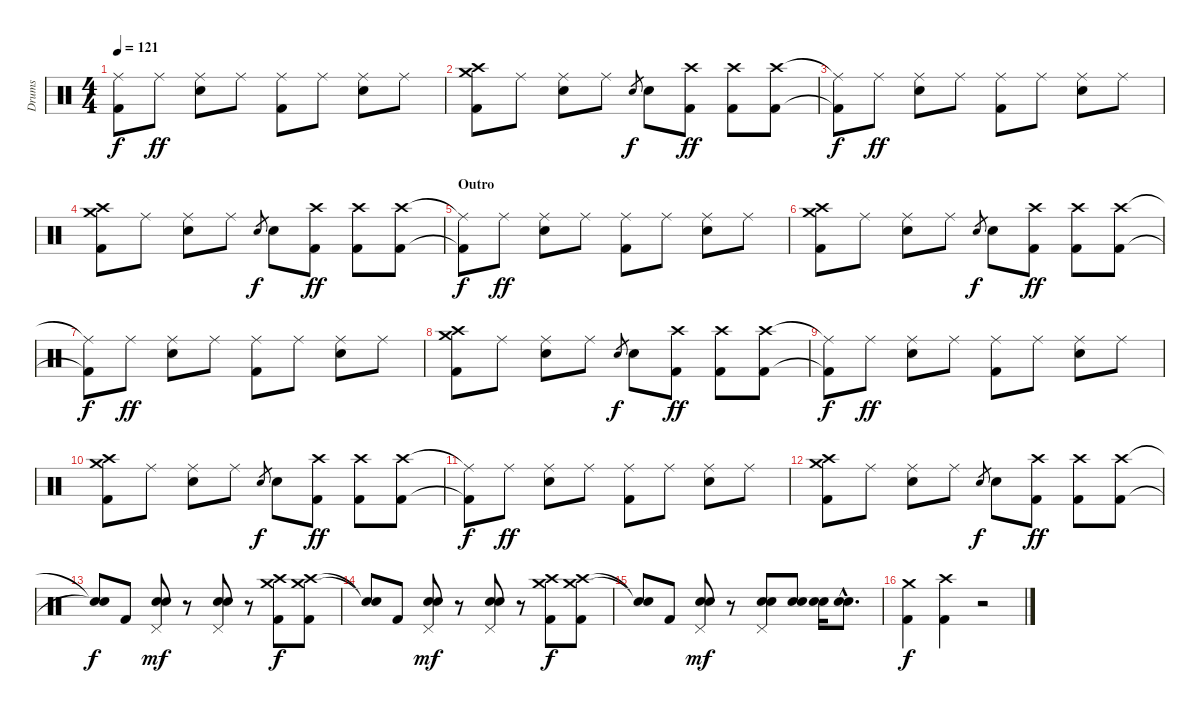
\track ("Drums" "Drums") {instrument percussion}
\staff {score}
\articulation defaults
\ts (4 4)
\tempo 121
\clef neutral
\ks c
("Ride (middle)"{t} "Kick (hit) 2"{t}).8{dy f} "Ride (middle)".8{dy ff} ("Ride (middle)" "Electric Snare (hit)").8 "Ride (middle)".8 ("Ride (middle)" "Kick (hit) 2").8 "Ride (middle)".8 ("Ride (middle)" "Electric Snare (hit)").8 "Ride (middle)".8 |
("Crash high (hit)" "Crash medium (hit)" "Kick (hit) 2").8 "Ride (middle)".8 ("Ride (middle)" "Electric Snare (hit)").8 "Ride (middle)".8 "Electric Snare (hit)".8{gr dy f} "Electric Snare (hit)".8 ("Crash high (hit)" "Kick (hit) 2").8{dy ff} ("Crash high (hit)" "Kick (hit) 2").8 ("Crash high (hit)" "Kick (hit) 2").8 |
("Ride (middle)"{t} "Kick (hit) 2"{t}).8{dy f} "Ride (middle)".8{dy ff} ("Ride (middle)" "Electric Snare (hit)").8 "Ride (middle)".8 ("Ride (middle)" "Kick (hit) 2").8 "Ride (middle)".8 ("Ride (middle)" "Electric Snare (hit)").8 "Ride (middle)".8 |
("Crash high (hit)" "Crash medium (hit)" "Kick (hit) 2").8 "Ride (middle)".8 ("Ride (middle)" "Electric Snare (hit)").8 "Ride (middle)".8 "Electric Snare (hit)".8{gr dy f} "Electric Snare (hit)".8 ("Crash high (hit)" "Kick (hit) 2").8{dy ff} ("Crash high (hit)" "Kick (hit) 2").8 ("Crash high (hit)" "Kick (hit) 2").8 |
\section ("" "Outro")
("Ride (middle)"{t} "Kick (hit) 2"{t}).8{dy f} "Ride (middle)".8{dy ff} ("Ride (middle)" "Electric Snare (hit)").8 "Ride (middle)".8 ("Ride (middle)" "Kick (hit) 2").8 "Ride (middle)".8 ("Ride (middle)" "Electric Snare (hit)").8 "Ride (middle)".8 |
("Crash high (hit)" "Crash medium (hit)" "Kick (hit) 2").8 "Ride (middle)".8 ("Ride (middle)" "Electric Snare (hit)").8 "Ride (middle)".8 "Electric Snare (hit)".8{gr dy f} "Electric Snare (hit)".8 ("Crash high (hit)" "Kick (hit) 2").8{dy ff} ("Crash high (hit)" "Kick (hit) 2").8 ("Crash high (hit)" "Kick (hit) 2").8 |
("Ride (middle)"{t} "Kick (hit) 2"{t}).8{dy f} "Ride (middle)".8{dy ff} ("Ride (middle)" "Electric Snare (hit)").8 "Ride (middle)".8 ("Ride (middle)" "Kick (hit) 2").8 "Ride (middle)".8 ("Ride (middle)" "Electric Snare (hit)").8 "Ride (middle)".8 |
("Crash high (hit)" "Crash medium (hit)" "Kick (hit) 2").8 "Ride (middle)".8 ("Ride (middle)" "Electric Snare (hit)").8 "Ride (middle)".8 "Electric Snare (hit)".8{gr dy f} "Electric Snare (hit)".8 ("Crash high (hit)" "Kick (hit) 2").8{dy ff} ("Crash high (hit)" "Kick (hit) 2").8 ("Crash high (hit)" "Kick (hit) 2").8 |
("Ride (middle)"{t} "Kick (hit) 2"{t}).8{dy f} "Ride (middle)".8{dy ff} ("Ride (middle)" "Electric Snare (hit)").8 "Ride (middle)".8 ("Ride (middle)" "Kick (hit) 2").8 "Ride (middle)".8 ("Ride (middle)" "Electric Snare (hit)").8 "Ride (middle)".8 |
("Crash high (hit)" "Crash medium (hit)" "Kick (hit) 2").8 "Ride (middle)".8 ("Ride (middle)" "Electric Snare (hit)").8 "Ride (middle)".8 "Electric Snare (hit)".8{gr dy f} "Electric Snare (hit)".8 ("Crash high (hit)" "Kick (hit) 2").8{dy ff} ("Crash high (hit)" "Kick (hit) 2").8 ("Crash high (hit)" "Kick (hit) 2").8 |
("Ride (middle)"{t} "Kick (hit) 2"{t}).8{dy f} "Ride (middle)".8{dy ff} ("Ride (middle)" "Electric Snare (hit)").8 "Ride (middle)".8 ("Ride (middle)" "Kick (hit) 2").8 "Ride (middle)".8 ("Ride (middle)" "Electric Snare (hit)").8 "Ride (middle)".8 |
("Crash high (hit)" "Crash medium (hit)" "Kick (hit) 2").8 "Ride (middle)".8 ("Ride (middle)" "Electric Snare (hit)").8 "Ride (middle)".8 "Electric Snare (hit)".8{gr dy f} "Electric Snare (hit)".8 ("Crash high (hit)" "Kick (hit) 2").8{dy ff} ("Crash high (hit)" "Kick (hit) 2").8 ("Crash high (hit)" "Kick (hit) 2").8 |
("Snare (hit)"{t} "Snare (hit)"{t}).8{dy f} "Kick (hit) 2".8 ("Pedal Hi-Hat (hit)" "Electric Snare (hit)" "Electric Snare (hit)").8{dy mf} r.8 ("Pedal Hi-Hat (hit)" "Electric Snare (hit)" "Electric Snare (hit)").8 r.8 ("Crash high (hit)" "Crash medium (hit)" "Kick (hit) 2").8{dy f} ("Crash high (hit)" "Crash medium (hit)" "Kick (hit) 2").8 |
("Snare (hit)"{t} "Snare (hit)"{t}).8 "Kick (hit) 2".8 ("Pedal Hi-Hat (hit)" "Electric Snare (hit)" "Electric Snare (hit)").8{dy mf} r.8 ("Pedal Hi-Hat (hit)" "Electric Snare (hit)" "Electric Snare (hit)").8 r.8 ("Crash high (hit)" "Crash medium (hit)" "Kick (hit) 2").8{dy f} ("Crash high (hit)" "Crash medium (hit)" "Kick (hit) 2").8 |
("Snare (hit)"{t} "Snare (hit)"{t}).8 "Kick (hit) 2".8 ("Pedal Hi-Hat (hit)" "Electric Snare (hit)" "Electric Snare (hit)").8{dy mf} r.8 ("Pedal Hi-Hat (hit)" "Electric Snare (hit)" "Electric Snare (hit)").8 ("Electric Snare (hit)" "Electric Snare (hit)").8 ("Electric Snare (hit)" "Electric Snare (hit)").16 ("Electric Snare (hit)"{hac} "Electric Snare (hit)"{hac}).8{d} |
("Crash medium (hit)" "Kick (hit) 2").4{dy f} ("Crash high (hit)" "Kick (hit) 2").4 r.2
